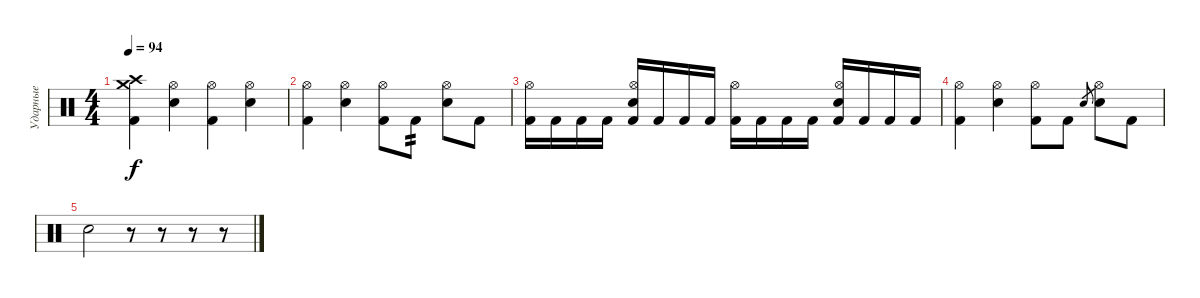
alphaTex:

\track ("Ударные" "Ударные") {instrument percussion}
\staff {score}
\articulation defaults
\ts (4 4)
\tempo 94
\clef neutral
\ks c
("Crash medium (hit)" "Crash high (hit)" "Kick (hit) 2").4{dy f} ("Hi-Hat (open)" "Electric Snare (hit)").4 ("Hi-Hat (open)" "Kick (hit) 2").4 ("Hi-Hat (open)" "Electric Snare (hit)").4 |
("Hi-Hat (open)" "Kick (hit) 2").4 ("Hi-Hat (open)" "Electric Snare (hit)").4 ("Hi-Hat (open)" "Kick (hit) 2").8 "Kick (hit) 2".8{tp 2} ("Hi-Hat (open)" "Electric Snare (hit)").8 "Kick (hit) 2".8 |
("Hi-Hat (open)" "Kick (hit) 2").16 "Kick (hit) 2".16 "Kick (hit) 2".16 "Kick (hit) 2".16 ("Hi-Hat (open)" "Electric Snare (hit)" "Kick (hit) 2").16 "Kick (hit) 2".16 "Kick (hit) 2".16 "Kick (hit) 2".16 ("Hi-Hat (open)" "Kick (hit) 2").16 "Kick (hit) 2".16 "Kick (hit) 2".16 "Kick (hit) 2".16 ("Hi-Hat (open)" "Electric Snare (hit)" "Kick (hit) 2").16 "Kick (hit) 2".16 "Kick (hit) 2".16 "Kick (hit) 2".16 |
("Hi-Hat (open)" "Kick (hit) 2").4 ("Hi-Hat (open)" "Electric Snare (hit)").4 ("Hi-Hat (open)" "Kick (hit) 2").8 "Kick (hit) 2".8 "Electric Snare (hit)".8{gr} ("Hi-Hat (open)" "Electric Snare (hit)").8 "Kick (hit) 2".8 |
"Electric Snare (hit)".2 r.8 r.8 r.8 r.8
